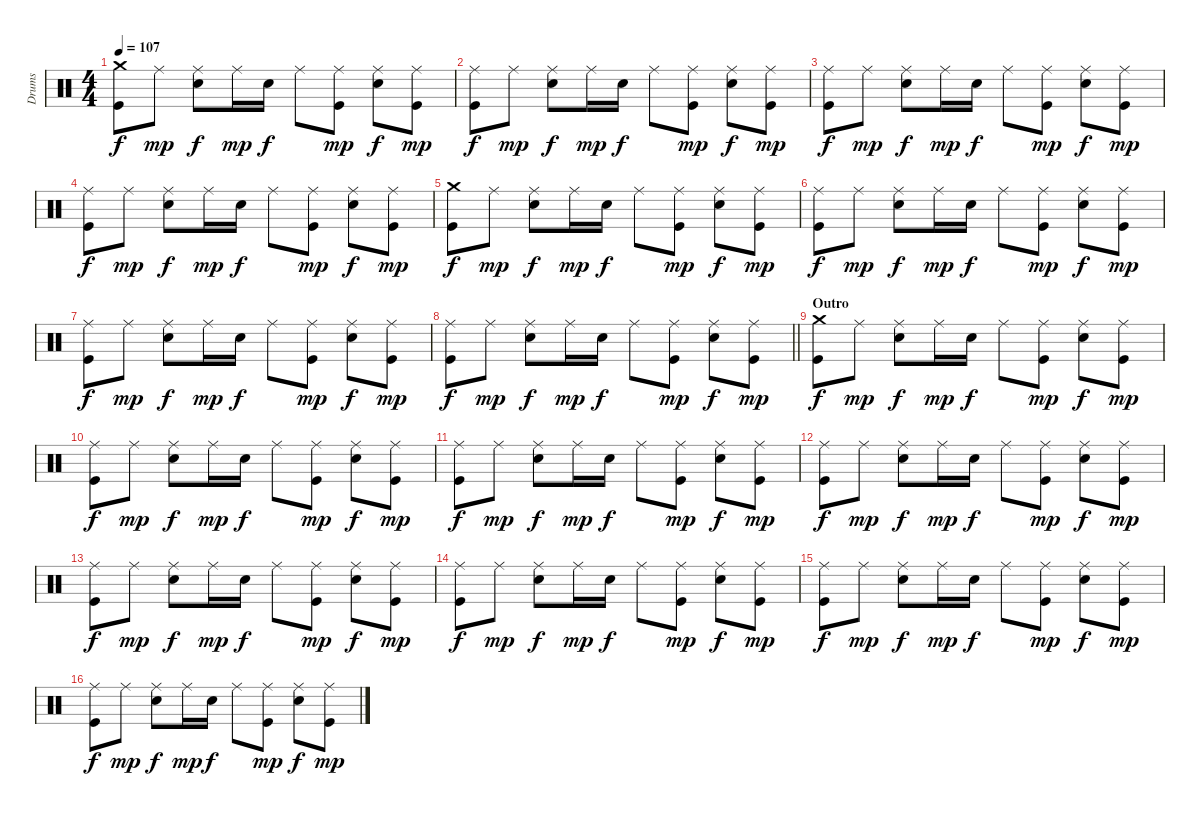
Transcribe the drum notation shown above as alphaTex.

\track ("Drums" "Drums") {instrument percussion}
\staff {score}
\articulation defaults
\ts (4 4)
\tempo 107
\clef neutral
\ks c
("Crash medium (hit)" "Kick (hit)").8{dy f} "Ride (middle)".8{dy mp} ("Ride (middle)" "Electric Snare (hit)").8{dy f} "Ride (middle)".16{dy mp} "Electric Snare (hit)".16{dy f} "Ride (middle)".8 ("Ride (middle)" "Kick (hit)").8{dy mp} ("Ride (middle)" "Electric Snare (hit)").8{dy f} ("Ride (middle)" "Kick (hit)").8{dy mp} |
("Ride (middle)" "Kick (hit)").8{dy f} "Ride (middle)".8{dy mp} ("Ride (middle)" "Electric Snare (hit)").8{dy f} "Ride (middle)".16{dy mp} "Electric Snare (hit)".16{dy f} "Ride (middle)".8 ("Ride (middle)" "Kick (hit)").8{dy mp} ("Ride (middle)" "Electric Snare (hit)").8{dy f} ("Ride (middle)" "Kick (hit)").8{dy mp} |
("Ride (middle)" "Kick (hit)").8{dy f} "Ride (middle)".8{dy mp} ("Ride (middle)" "Electric Snare (hit)").8{dy f} "Ride (middle)".16{dy mp} "Electric Snare (hit)".16{dy f} "Ride (middle)".8 ("Ride (middle)" "Kick (hit)").8{dy mp} ("Ride (middle)" "Electric Snare (hit)").8{dy f} ("Ride (middle)" "Kick (hit)").8{dy mp} |
("Ride (middle)" "Kick (hit)").8{dy f} "Ride (middle)".8{dy mp} ("Ride (middle)" "Electric Snare (hit)").8{dy f} "Ride (middle)".16{dy mp} "Electric Snare (hit)".16{dy f} "Ride (middle)".8 ("Ride (middle)" "Kick (hit)").8{dy mp} ("Ride (middle)" "Electric Snare (hit)").8{dy f} ("Ride (middle)" "Kick (hit)").8{dy mp} |
("Crash medium (hit)" "Kick (hit)").8{dy f} "Ride (middle)".8{dy mp} ("Ride (middle)" "Electric Snare (hit)").8{dy f} "Ride (middle)".16{dy mp} "Electric Snare (hit)".16{dy f} "Ride (middle)".8 ("Ride (middle)" "Kick (hit)").8{dy mp} ("Ride (middle)" "Electric Snare (hit)").8{dy f} ("Ride (middle)" "Kick (hit)").8{dy mp} |
("Ride (middle)" "Kick (hit)").8{dy f} "Ride (middle)".8{dy mp} ("Ride (middle)" "Electric Snare (hit)").8{dy f} "Ride (middle)".16{dy mp} "Electric Snare (hit)".16{dy f} "Ride (middle)".8 ("Ride (middle)" "Kick (hit)").8{dy mp} ("Ride (middle)" "Electric Snare (hit)").8{dy f} ("Ride (middle)" "Kick (hit)").8{dy mp} |
("Ride (middle)" "Kick (hit)").8{dy f} "Ride (middle)".8{dy mp} ("Ride (middle)" "Electric Snare (hit)").8{dy f} "Ride (middle)".16{dy mp} "Electric Snare (hit)".16{dy f} "Ride (middle)".8 ("Ride (middle)" "Kick (hit)").8{dy mp} ("Ride (middle)" "Electric Snare (hit)").8{dy f} ("Ride (middle)" "Kick (hit)").8{dy mp} |
\barLineRight lightlight
("Ride (middle)" "Kick (hit)").8{dy f} "Ride (middle)".8{dy mp} ("Ride (middle)" "Electric Snare (hit)").8{dy f} "Ride (middle)".16{dy mp} "Electric Snare (hit)".16{dy f} "Ride (middle)".8 ("Ride (middle)" "Kick (hit)").8{dy mp} ("Ride (middle)" "Electric Snare (hit)").8{dy f} ("Ride (middle)" "Kick (hit)").8{dy mp} |
\section ("" "Outro")
("Crash medium (hit)" "Kick (hit)").8{dy f} "Ride (middle)".8{dy mp} ("Ride (middle)" "Electric Snare (hit)").8{dy f} "Ride (middle)".16{dy mp} "Electric Snare (hit)".16{dy f} "Ride (middle)".8 ("Ride (middle)" "Kick (hit)").8{dy mp} ("Ride (middle)" "Electric Snare (hit)").8{dy f} ("Ride (middle)" "Kick (hit)").8{dy mp} |
("Ride (middle)" "Kick (hit)").8{dy f} "Ride (middle)".8{dy mp} ("Ride (middle)" "Electric Snare (hit)").8{dy f} "Ride (middle)".16{dy mp} "Electric Snare (hit)".16{dy f} "Ride (middle)".8 ("Ride (middle)" "Kick (hit)").8{dy mp} ("Ride (middle)" "Electric Snare (hit)").8{dy f} ("Ride (middle)" "Kick (hit)").8{dy mp} |
("Ride (middle)" "Kick (hit)").8{dy f} "Ride (middle)".8{dy mp} ("Ride (middle)" "Electric Snare (hit)").8{dy f} "Ride (middle)".16{dy mp} "Electric Snare (hit)".16{dy f} "Ride (middle)".8 ("Ride (middle)" "Kick (hit)").8{dy mp} ("Ride (middle)" "Electric Snare (hit)").8{dy f} ("Ride (middle)" "Kick (hit)").8{dy mp} |
("Ride (middle)" "Kick (hit)").8{dy f} "Ride (middle)".8{dy mp} ("Ride (middle)" "Electric Snare (hit)").8{dy f} "Ride (middle)".16{dy mp} "Electric Snare (hit)".16{dy f} "Ride (middle)".8 ("Ride (middle)" "Kick (hit)").8{dy mp} ("Ride (middle)" "Electric Snare (hit)").8{dy f} ("Ride (middle)" "Kick (hit)").8{dy mp} |
("Ride (middle)" "Kick (hit)").8{dy f} "Ride (middle)".8{dy mp} ("Ride (middle)" "Electric Snare (hit)").8{dy f} "Ride (middle)".16{dy mp} "Electric Snare (hit)".16{dy f} "Ride (middle)".8 ("Ride (middle)" "Kick (hit)").8{dy mp} ("Ride (middle)" "Electric Snare (hit)").8{dy f} ("Ride (middle)" "Kick (hit)").8{dy mp} |
("Ride (middle)" "Kick (hit)").8{dy f} "Ride (middle)".8{dy mp} ("Ride (middle)" "Electric Snare (hit)").8{dy f} "Ride (middle)".16{dy mp} "Electric Snare (hit)".16{dy f} "Ride (middle)".8 ("Ride (middle)" "Kick (hit)").8{dy mp} ("Ride (middle)" "Electric Snare (hit)").8{dy f} ("Ride (middle)" "Kick (hit)").8{dy mp} |
("Ride (middle)" "Kick (hit)").8{dy f} "Ride (middle)".8{dy mp} ("Ride (middle)" "Electric Snare (hit)").8{dy f} "Ride (middle)".16{dy mp} "Electric Snare (hit)".16{dy f} "Ride (middle)".8 ("Ride (middle)" "Kick (hit)").8{dy mp} ("Ride (middle)" "Electric Snare (hit)").8{dy f} ("Ride (middle)" "Kick (hit)").8{dy mp} |
("Ride (middle)" "Kick (hit)").8{dy f} "Ride (middle)".8{dy mp} ("Ride (middle)" "Electric Snare (hit)").8{dy f} "Ride (middle)".16{dy mp} "Electric Snare (hit)".16{dy f} "Ride (middle)".8 ("Ride (middle)" "Kick (hit)").8{dy mp} ("Ride (middle)" "Electric Snare (hit)").8{dy f} ("Ride (middle)" "Kick (hit)").8{dy mp}
